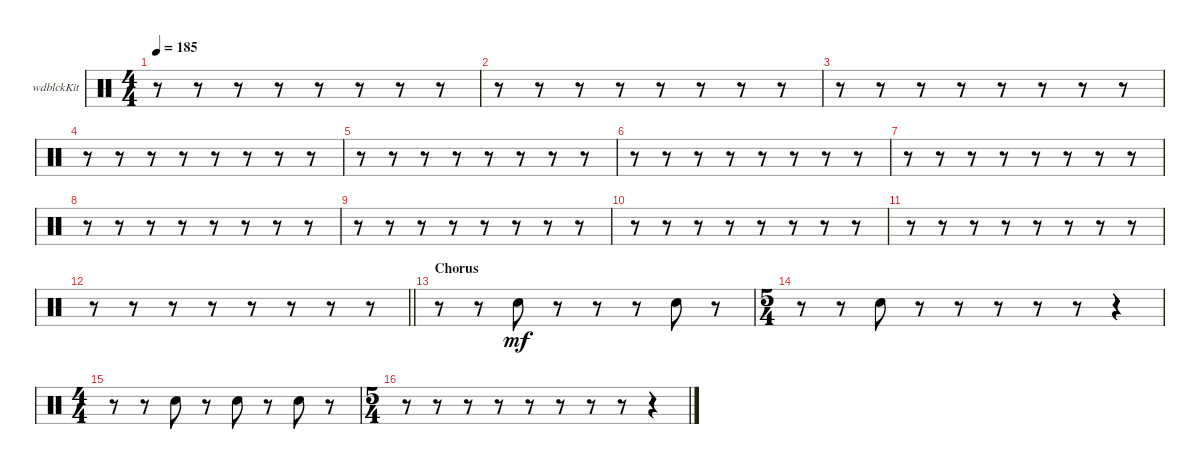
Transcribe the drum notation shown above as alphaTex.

\bracketExtendMode groupsimilarinstruments
\firstSystemTrackNameOrientation horizontal
\otherSystemsTrackNameOrientation horizontal
\track ("Woodblock" "wdblckKit") {instrument percussion}
\staff {score}
\articulation defaults
\ts (4 4)
\tempo 185
\clef neutral
\ks c
r.8{dy mp} r.8 r.8 r.8 r.8 r.8 r.8 r.8 |
r.8 r.8 r.8 r.8 r.8 r.8 r.8 r.8 |
r.8 r.8 r.8 r.8 r.8 r.8 r.8 r.8 |
r.8 r.8 r.8 r.8 r.8 r.8 r.8 r.8 |
r.8 r.8 r.8 r.8 r.8 r.8 r.8 r.8 |
r.8 r.8 r.8 r.8 r.8 r.8 r.8 r.8 |
r.8 r.8 r.8 r.8 r.8 r.8 r.8 r.8 |
r.8 r.8 r.8 r.8 r.8 r.8 r.8 r.8 |
r.8 r.8 r.8 r.8 r.8 r.8 r.8 r.8 |
r.8 r.8 r.8 r.8 r.8 r.8 r.8 r.8 |
r.8 r.8 r.8 r.8 r.8 r.8 r.8 r.8 |
\barLineRight lightlight
r.8 r.8 r.8 r.8 r.8 r.8 r.8 r.8 |
\section ("" "Chorus")
r.8 r.8 "Snare (hit) 2".8{dy mf} r.8 r.8 r.8 "Snare (hit) 2".8 r.8 |
\ts (5 4)
\beaming (8 2 2 2 4)
r.8 r.8 "Snare (hit) 2".8 r.8 r.8 r.8 r.8 r.8 r.4 |
\ts (4 4)
\beaming (8 2 2 2 2)
r.8 r.8 "Snare (hit) 2".8 r.8 "Snare (hit) 2".8 r.8 "Snare (hit) 2".8 r.8 |
\ts (5 4)
\beaming (8 2 2 2 4)
r.8 r.8 r.8 r.8 r.8 r.8 r.8 r.8 r.4
